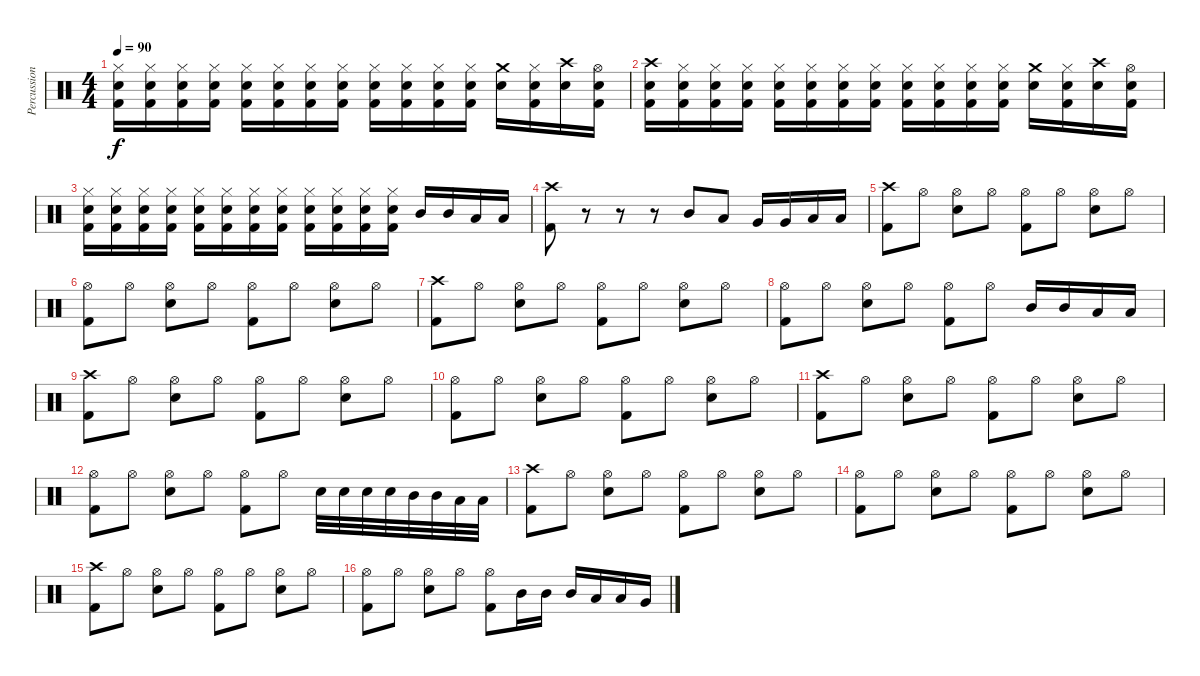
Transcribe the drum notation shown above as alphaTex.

\track ("Percussion" "Percussion") {instrument percussion}
\staff {score}
\articulation defaults
\ts (4 4)
\tempo 90
\clef neutral
\ks c
("Hi-Hat (closed)" "Snare (hit) 2" "Kick (hit) 2").16{dy f} ("Hi-Hat (closed)" "Snare (hit) 2" "Kick (hit) 2").16 ("Hi-Hat (closed)" "Snare (hit) 2" "Kick (hit) 2").16 ("Hi-Hat (closed)" "Snare (hit) 2" "Kick (hit) 2").16 ("Hi-Hat (closed)" "Snare (hit) 2" "Kick (hit) 2").16 ("Hi-Hat (closed)" "Snare (hit) 2" "Kick (hit) 2").16 ("Hi-Hat (closed)" "Snare (hit) 2" "Kick (hit) 2").16 ("Hi-Hat (closed)" "Snare (hit) 2" "Kick (hit) 2").16 ("Hi-Hat (closed)" "Snare (hit) 2" "Kick (hit) 2").16 ("Hi-Hat (closed)" "Snare (hit) 2" "Kick (hit) 2").16 ("Hi-Hat (closed)" "Snare (hit) 2" "Kick (hit) 2").16 ("Hi-Hat (closed)" "Snare (hit) 2" "Kick (hit) 2").16 ("Crash medium (hit)" "Snare (hit) 2").16 ("Hi-Hat (closed)" "Snare (hit) 2" "Kick (hit) 2").16 ("Crash high (hit)" "Snare (hit) 2").16 ("Hi-Hat (open)" "Snare (hit) 2" "Kick (hit) 2").16 |
("Crash high (hit)" "Snare (hit) 2" "Kick (hit) 2").16 ("Hi-Hat (closed)" "Snare (hit) 2" "Kick (hit) 2").16 ("Hi-Hat (closed)" "Snare (hit) 2" "Kick (hit) 2").16 ("Hi-Hat (closed)" "Snare (hit) 2" "Kick (hit) 2").16 ("Hi-Hat (closed)" "Snare (hit) 2" "Kick (hit) 2").16 ("Hi-Hat (closed)" "Snare (hit) 2" "Kick (hit) 2").16 ("Hi-Hat (closed)" "Snare (hit) 2" "Kick (hit) 2").16 ("Hi-Hat (closed)" "Snare (hit) 2" "Kick (hit) 2").16 ("Hi-Hat (closed)" "Snare (hit) 2" "Kick (hit) 2").16 ("Hi-Hat (closed)" "Snare (hit) 2" "Kick (hit) 2").16 ("Hi-Hat (closed)" "Snare (hit) 2" "Kick (hit) 2").16 ("Hi-Hat (closed)" "Snare (hit) 2" "Kick (hit) 2").16 ("Crash medium (hit)" "Snare (hit) 2").16 ("Hi-Hat (closed)" "Snare (hit) 2" "Kick (hit) 2").16 ("Crash high (hit)" "Snare (hit) 2").16 ("Hi-Hat (open)" "Snare (hit) 2" "Kick (hit) 2").16 |
("Hi-Hat (closed)" "Snare (hit) 2" "Kick (hit) 2").16 ("Hi-Hat (closed)" "Snare (hit) 2" "Kick (hit) 2").16 ("Hi-Hat (closed)" "Snare (hit) 2" "Kick (hit) 2").16 ("Hi-Hat (closed)" "Snare (hit) 2" "Kick (hit) 2").16 ("Hi-Hat (closed)" "Snare (hit) 2" "Kick (hit) 2").16 ("Hi-Hat (closed)" "Snare (hit) 2" "Kick (hit) 2").16 ("Hi-Hat (closed)" "Snare (hit) 2" "Kick (hit) 2").16 ("Hi-Hat (closed)" "Snare (hit) 2" "Kick (hit) 2").16 ("Hi-Hat (closed)" "Snare (hit) 2" "Kick (hit) 2").16 ("Hi-Hat (closed)" "Snare (hit) 2" "Kick (hit) 2").16 ("Hi-Hat (closed)" "Snare (hit) 2" "Kick (hit) 2").16 ("Hi-Hat (closed)" "Snare (hit) 2" "Kick (hit) 2").16 "Mid Tom (hit)".16 "Mid Tom (hit)".16 "Low Tom (hit)".16 "Low Tom (hit)".16 |
("Crash high (hit)" "Kick (hit) 2").8 r.8 r.8 r.8 "Mid Tom (hit)".8 "Low Tom (hit)".8 "Very Low Tom (hit)".16 "Very Low Tom (hit)".16 "Low Floor Tom (hit)".16 "Low Floor Tom (hit)".16 |
("Crash high (hit)" "Kick (hit) 2").8 "Hi-Hat (open)".8 ("Hi-Hat (open)" "Snare (hit) 2").8 "Hi-Hat (open)".8 ("Hi-Hat (open)" "Kick (hit) 2").8 "Hi-Hat (open)".8 ("Hi-Hat (open)" "Snare (hit) 2").8 "Hi-Hat (open)".8 |
("Hi-Hat (open)" "Kick (hit) 2").8 "Hi-Hat (open)".8 ("Hi-Hat (open)" "Snare (hit) 2").8 "Hi-Hat (open)".8 ("Hi-Hat (open)" "Kick (hit) 2").8 "Hi-Hat (open)".8 ("Hi-Hat (open)" "Snare (hit) 2").8 "Hi-Hat (open)".8 |
("Crash high (hit)" "Kick (hit) 2").8 "Hi-Hat (open)".8 ("Hi-Hat (open)" "Snare (hit) 2").8 "Hi-Hat (open)".8 ("Hi-Hat (open)" "Kick (hit) 2").8 "Hi-Hat (open)".8 ("Hi-Hat (open)" "Snare (hit) 2").8 "Hi-Hat (open)".8 |
("Hi-Hat (open)" "Kick (hit) 2").8 "Hi-Hat (open)".8 ("Hi-Hat (open)" "Snare (hit) 2").8 "Hi-Hat (open)".8 ("Hi-Hat (open)" "Kick (hit) 2").8 "Hi-Hat (open)".8 "Mid Tom (hit)".16 "Mid Tom (hit)".16 "Low Tom (hit)".16 "Low Tom (hit)".16 |
("Crash high (hit)" "Kick (hit) 2").8 "Hi-Hat (open)".8 ("Hi-Hat (open)" "Snare (hit) 2").8 "Hi-Hat (open)".8 ("Hi-Hat (open)" "Kick (hit) 2").8 "Hi-Hat (open)".8 ("Hi-Hat (open)" "Snare (hit) 2").8 "Hi-Hat (open)".8 |
("Hi-Hat (open)" "Kick (hit) 2").8 "Hi-Hat (open)".8 ("Hi-Hat (open)" "Snare (hit) 2").8 "Hi-Hat (open)".8 ("Hi-Hat (open)" "Kick (hit) 2").8 "Hi-Hat (open)".8 ("Hi-Hat (open)" "Snare (hit) 2").8 "Hi-Hat (open)".8 |
("Crash high (hit)" "Kick (hit) 2").8 "Hi-Hat (open)".8 ("Hi-Hat (open)" "Snare (hit) 2").8 "Hi-Hat (open)".8 ("Hi-Hat (open)" "Kick (hit) 2").8 "Hi-Hat (open)".8 ("Hi-Hat (open)" "Snare (hit) 2").8 "Hi-Hat (open)".8 |
("Hi-Hat (open)" "Kick (hit) 2").8 "Hi-Hat (open)".8 ("Hi-Hat (open)" "Snare (hit) 2").8 "Hi-Hat (open)".8 ("Hi-Hat (open)" "Kick (hit) 2").8 "Hi-Hat (open)".8 "Snare (hit) 2".32 "Snare (hit) 2".32 "Snare (hit) 2".32 "Snare (hit) 2".32 "Mid Tom (hit)".32 "Mid Tom (hit)".32 "Low Tom (hit)".32 "Low Tom (hit)".32 |
("Crash high (hit)" "Kick (hit) 2").8 "Hi-Hat (open)".8 ("Hi-Hat (open)" "Snare (hit) 2").8 "Hi-Hat (open)".8 ("Hi-Hat (open)" "Kick (hit) 2").8 "Hi-Hat (open)".8 ("Hi-Hat (open)" "Snare (hit) 2").8 "Hi-Hat (open)".8 |
("Hi-Hat (open)" "Kick (hit) 2").8 "Hi-Hat (open)".8 ("Hi-Hat (open)" "Snare (hit) 2").8 "Hi-Hat (open)".8 ("Hi-Hat (open)" "Kick (hit) 2").8 "Hi-Hat (open)".8 ("Hi-Hat (open)" "Snare (hit) 2").8 "Hi-Hat (open)".8 |
("Crash high (hit)" "Kick (hit) 2").8 "Hi-Hat (open)".8 ("Hi-Hat (open)" "Snare (hit) 2").8 "Hi-Hat (open)".8 ("Hi-Hat (open)" "Kick (hit) 2").8 "Hi-Hat (open)".8 ("Hi-Hat (open)" "Snare (hit) 2").8 "Hi-Hat (open)".8 |
("Hi-Hat (open)" "Kick (hit) 2").8 "Hi-Hat (open)".8 ("Hi-Hat (open)" "Snare (hit) 2").8 "Hi-Hat (open)".8 ("Hi-Hat (open)" "Kick (hit) 2").8 "Mid Tom (hit)".16 "Mid Tom (hit)".16 "Mid Tom (hit)".16 "Low Tom (hit)".16 "Low Tom (hit)".16 "Very Low Tom (hit)".16
